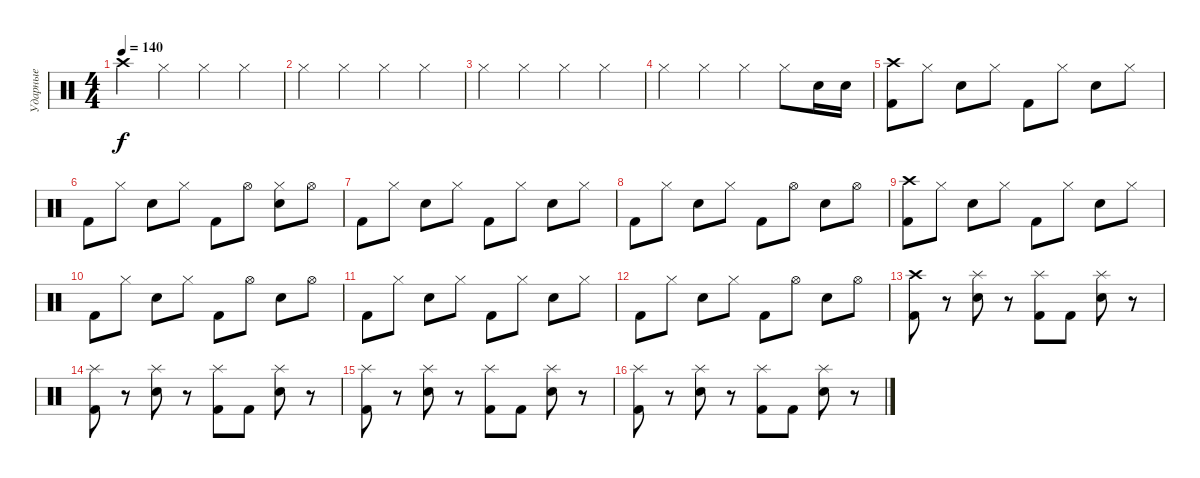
\track ("Ударные" "Ударные") {instrument percussion}
\staff {score}
\articulation defaults
\ts (4 4)
\tempo 140
\clef neutral
\ks c "Crash high (hit)".4{dy f} "Hi-Hat (closed)".4 "Hi-Hat (closed)".4 "Hi-Hat (closed)".4
|
"Hi-Hat (closed)".4 "Hi-Hat (closed)".4 "Hi-Hat (closed)".4 "Hi-Hat (closed)".4 |
"Hi-Hat (closed)".4 "Hi-Hat (closed)".4 "Hi-Hat (closed)".4 "Hi-Hat (closed)".4 |
"Hi-Hat (closed)".4 "Hi-Hat (closed)".4 "Hi-Hat (closed)".4 "Hi-Hat (closed)".8 "Electric Snare (hit)".16 "Electric Snare (hit)".16 |
("Crash high (hit)" "Kick (hit) 2").8 "Hi-Hat (closed)".8 "Electric Snare (hit)".8 "Hi-Hat (closed)".8 "Kick (hit) 2".8 "Hi-Hat (closed)".8 "Electric Snare (hit)".8 "Hi-Hat (closed)".8 |
"Kick (hit) 2".8 "Hi-Hat (closed)".8 "Electric Snare (hit)".8 "Hi-Hat (closed)".8 "Kick (hit) 2".8 "Hi-Hat (open)".8 ("Hi-Hat (closed)" "Electric Snare (hit)").8 "Hi-Hat (open)".8 |
"Kick (hit) 2".8 "Hi-Hat (closed)".8 "Electric Snare (hit)".8 "Hi-Hat (closed)".8 "Kick (hit) 2".8 "Hi-Hat (closed)".8 "Electric Snare (hit)".8 "Hi-Hat (closed)".8 |
"Kick (hit) 2".8 "Hi-Hat (closed)".8 "Electric Snare (hit)".8 "Hi-Hat (closed)".8 "Kick (hit) 2".8 "Hi-Hat (open)".8 "Electric Snare (hit)".8 "Hi-Hat (open)".8 |
("Crash high (hit)" "Kick (hit) 2").8 "Hi-Hat (closed)".8 "Electric Snare (hit)".8 "Hi-Hat (closed)".8 "Kick (hit) 2".8 "Hi-Hat (closed)".8 "Electric Snare (hit)".8 "Hi-Hat (closed)".8 |
"Kick (hit) 2".8 "Hi-Hat (closed)".8 "Electric Snare (hit)".8 "Hi-Hat (closed)".8 "Kick (hit) 2".8 "Hi-Hat (open)".8 "Electric Snare (hit)".8 "Hi-Hat (open)".8 |
"Kick (hit) 2".8 "Hi-Hat (closed)".8 "Electric Snare (hit)".8 "Hi-Hat (closed)".8 "Kick (hit) 2".8 "Hi-Hat (closed)".8 "Electric Snare (hit)".8 "Hi-Hat (closed)".8 |
"Kick (hit) 2".8 "Hi-Hat (closed)".8 "Electric Snare (hit)".8 "Hi-Hat (closed)".8 "Kick (hit) 2".8 "Hi-Hat (open)".8 "Electric Snare (hit)".8 "Hi-Hat (open)".8 |
("Crash high (hit)" "Kick (hit) 2").8 r.8 ("Splash (hit)" "Electric Snare (hit)").8 r.8 ("Splash (hit)" "Kick (hit) 2").8 "Kick (hit) 2".8 ("Splash (hit)" "Electric Snare (hit)").8 r.8 |
("Splash (hit)" "Kick (hit) 2").8 r.8 ("Splash (hit)" "Electric Snare (hit)").8 r.8 ("Splash (hit)" "Kick (hit) 2").8 "Kick (hit) 2".8 ("Splash (hit)" "Electric Snare (hit)").8 r.8 |
("Splash (hit)" "Kick (hit) 2").8 r.8 ("Splash (hit)" "Electric Snare (hit)").8 r.8 ("Splash (hit)" "Kick (hit) 2").8 "Kick (hit) 2".8 ("Splash (hit)" "Electric Snare (hit)").8 r.8 |
("Splash (hit)" "Kick (hit) 2").8 r.8 ("Splash (hit)" "Electric Snare (hit)").8 r.8 ("Splash (hit)" "Kick (hit) 2").8 "Kick (hit) 2".8 ("Splash (hit)" "Electric Snare (hit)").8 r.8
